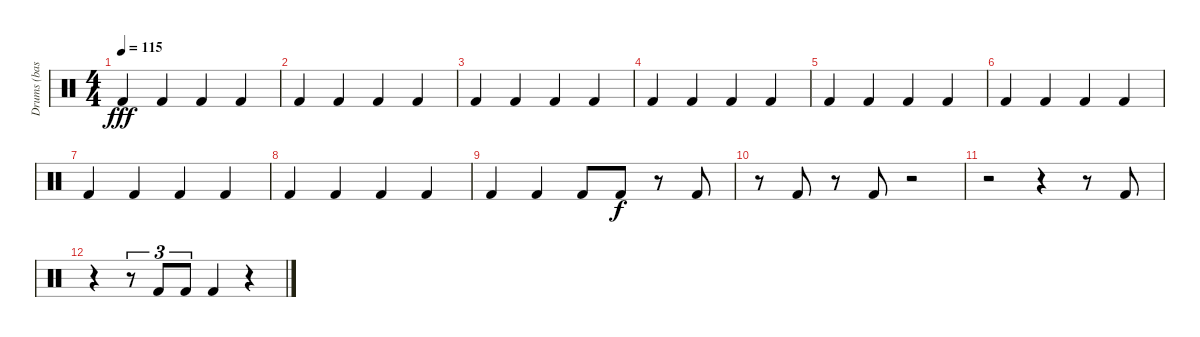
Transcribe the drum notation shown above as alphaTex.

\track ("Drums (bass drum)" "Drums (bas") {instrument percussion}
\staff {score}
\articulation defaults
\ts (4 4)
\tempo 115
\clef neutral
\ks c "Kick (hit) 2".4{dy fff} "Kick (hit) 2".4 "Kick (hit) 2".4 "Kick (hit) 2".4
|
"Kick (hit) 2".4 "Kick (hit) 2".4 "Kick (hit) 2".4 "Kick (hit) 2".4 |
"Kick (hit) 2".4 "Kick (hit) 2".4 "Kick (hit) 2".4 "Kick (hit) 2".4 |
"Kick (hit) 2".4 "Kick (hit) 2".4 "Kick (hit) 2".4 "Kick (hit) 2".4 |
"Kick (hit) 2".4 "Kick (hit) 2".4 "Kick (hit) 2".4 "Kick (hit) 2".4 |
"Kick (hit) 2".4 "Kick (hit) 2".4 "Kick (hit) 2".4 "Kick (hit) 2".4 |
"Kick (hit) 2".4 "Kick (hit) 2".4 "Kick (hit) 2".4 "Kick (hit) 2".4 |
"Kick (hit) 2".4 "Kick (hit) 2".4 "Kick (hit) 2".4 "Kick (hit) 2".4 |
"Kick (hit) 2".4 "Kick (hit) 2".4 "Kick (hit) 2".8 "Kick (hit) 2".8{dy f} r.8 "Kick (hit) 2".8 |
r.8 "Kick (hit) 2".8 r.8 "Kick (hit) 2".8 r.2 |
r.2 r.4 r.8 "Kick (hit) 2".8 |
r.4 r.8{tu (3 2)} "Kick (hit) 2".8{tu (3 2)} "Kick (hit) 2".8{tu (3 2)} "Kick (hit) 2".4 r.4
